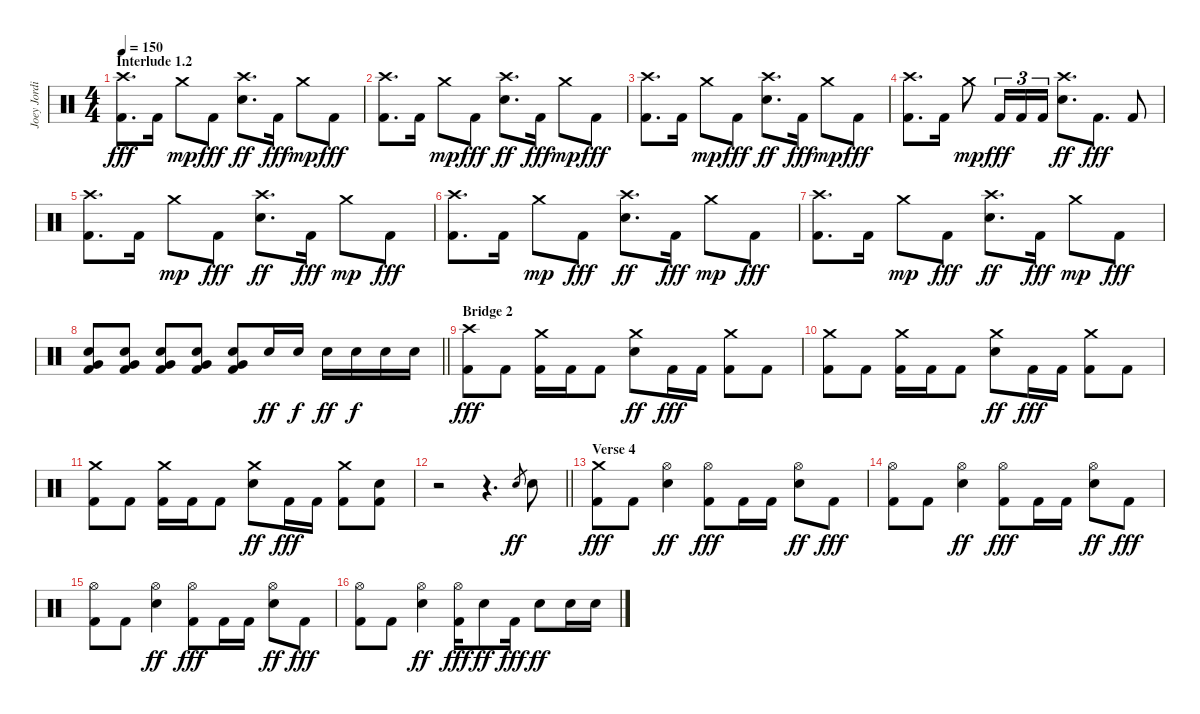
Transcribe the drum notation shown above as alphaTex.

\track ("Joey Jordison" "Joey Jordi") {instrument percussion}
\staff {score}
\articulation defaults
\ts (4 4)
\section ("" "Interlude 1.2")
\tempo 150
\clef neutral
\ks c
("Crash high (hit)" "Kick (hit) 2").8{d dy fff} "Kick (hit) 2".16 "Crash medium (hit)".8{dy mp} "Kick (hit) 2".8{dy fff} ("Crash high (hit)" "Electric Snare (hit)").8{d dy ff} "Kick (hit) 2".16{dy fff} "Crash medium (hit)".8{dy mp} "Kick (hit) 2".8{dy fff} |
("Crash high (hit)" "Kick (hit) 2").8{d} "Kick (hit) 2".16 "Crash medium (hit)".8{dy mp} "Kick (hit) 2".8{dy fff} ("Crash high (hit)" "Electric Snare (hit)").8{d dy ff} "Kick (hit) 2".16{dy fff} "Crash medium (hit)".8{dy mp} "Kick (hit) 2".8{dy fff} |
("Crash high (hit)" "Kick (hit) 2").8{d} "Kick (hit) 2".16 "Crash medium (hit)".8{dy mp} "Kick (hit) 2".8{dy fff} ("Crash high (hit)" "Electric Snare (hit)").8{d dy ff} "Kick (hit) 2".16{dy fff} "Crash medium (hit)".8{dy mp} "Kick (hit) 2".8{dy fff} |
("Crash high (hit)" "Kick (hit) 2").8{d} "Kick (hit) 2".16 "Crash medium (hit)".8{dy mp} "Kick (hit) 2".16{tu (3 2) dy fff} "Kick (hit) 2".16{tu (3 2)} "Kick (hit) 2".16{tu (3 2)} ("Crash high (hit)" "Electric Snare (hit)").8{d dy ff} "Kick (hit) 2".8{d dy fff} "Kick (hit) 2".8 |
("Crash high (hit)" "Kick (hit) 2").8{d} "Kick (hit) 2".16 "Crash medium (hit)".8{dy mp} "Kick (hit) 2".8{dy fff} ("Crash high (hit)" "Electric Snare (hit)").8{d dy ff} "Kick (hit) 2".16{dy fff} "Crash medium (hit)".8{dy mp} "Kick (hit) 2".8{dy fff} |
("Crash high (hit)" "Kick (hit) 2").8{d} "Kick (hit) 2".16 "Crash medium (hit)".8{dy mp} "Kick (hit) 2".8{dy fff} ("Crash high (hit)" "Electric Snare (hit)").8{d dy ff} "Kick (hit) 2".16{dy fff} "Crash medium (hit)".8{dy mp} "Kick (hit) 2".8{dy fff} |
("Crash high (hit)" "Kick (hit) 2").8{d} "Kick (hit) 2".16 "Crash medium (hit)".8{dy mp} "Kick (hit) 2".8{dy fff} ("Crash high (hit)" "Electric Snare (hit)").8{d dy ff} "Kick (hit) 2".16{dy fff} "Crash medium (hit)".8{dy mp} "Kick (hit) 2".8{dy fff} |
\barLineRight lightlight
("Electric Snare (hit)" "Very Low Tom (hit)" "Kick (hit) 2").8 ("Electric Snare (hit)" "Very Low Tom (hit)" "Kick (hit) 2").8 ("Electric Snare (hit)" "Very Low Tom (hit)" "Kick (hit) 2").8 ("Electric Snare (hit)" "Very Low Tom (hit)" "Kick (hit) 2").8 ("Electric Snare (hit)" "Very Low Tom (hit)" "Kick (hit) 2").8 "Electric Snare (hit)".16{dy ff} "Electric Snare (hit)".16{dy f} "Electric Snare (hit)".16{dy ff} "Electric Snare (hit)".16{dy f} "Electric Snare (hit)".16 "Electric Snare (hit)".16 |
\section ("" "Bridge 2")
("Crash high (hit)" "Kick (hit) 2").8{dy fff} "Kick (hit) 2".8 ("Crash medium (hit)" "Kick (hit) 2").16 "Kick (hit) 2".16 "Kick (hit) 2".8 ("Crash medium (hit)" "Electric Snare (hit)").8{dy ff} "Kick (hit) 2".16{dy fff} "Kick (hit) 2".16 ("Crash medium (hit)" "Kick (hit) 2").8 "Kick (hit) 2".8 |
("Crash medium (hit)" "Kick (hit) 2").8 "Kick (hit) 2".8 ("Crash medium (hit)" "Kick (hit) 2").16 "Kick (hit) 2".16 "Kick (hit) 2".8 ("Crash medium (hit)" "Electric Snare (hit)").8{dy ff} "Kick (hit) 2".16{dy fff} "Kick (hit) 2".16 ("Crash medium (hit)" "Kick (hit) 2").8 "Kick (hit) 2".8 |
("Crash medium (hit)" "Kick (hit) 2").8 "Kick (hit) 2".8 ("Crash medium (hit)" "Kick (hit) 2").16 "Kick (hit) 2".16 "Kick (hit) 2".8 ("Crash medium (hit)" "Electric Snare (hit)").8{dy ff} "Kick (hit) 2".16{dy fff} "Kick (hit) 2".16 ("Crash medium (hit)" "Kick (hit) 2").8 ("Electric Snare (hit)" "Kick (hit) 2").8 |
\barLineRight lightlight
r.2 r.4{d} "Electric Snare (hit)".8{gr dy ff} "Electric Snare (hit)".8 |
\section ("" "Verse 4")
("Crash medium (hit)" "Kick (hit) 2").8{dy fff} "Kick (hit) 2".8 ("Hi-Hat (open)" "Electric Snare (hit)").4{dy ff} ("Hi-Hat (open)" "Kick (hit) 2").8{dy fff} "Kick (hit) 2".16 "Kick (hit) 2".16 ("Hi-Hat (open)" "Electric Snare (hit)").8{dy ff} "Kick (hit) 2".8{dy fff} |
("Hi-Hat (open)" "Kick (hit) 2").8 "Kick (hit) 2".8 ("Hi-Hat (open)" "Electric Snare (hit)").4{dy ff} ("Hi-Hat (open)" "Kick (hit) 2").8{dy fff} "Kick (hit) 2".16 "Kick (hit) 2".16 ("Hi-Hat (open)" "Electric Snare (hit)").8{dy ff} "Kick (hit) 2".8{dy fff} |
("Hi-Hat (open)" "Kick (hit) 2").8 "Kick (hit) 2".8 ("Hi-Hat (open)" "Electric Snare (hit)").4{dy ff} ("Hi-Hat (open)" "Kick (hit) 2").8{dy fff} "Kick (hit) 2".16 "Kick (hit) 2".16 ("Hi-Hat (open)" "Electric Snare (hit)").8{dy ff} "Kick (hit) 2".8{dy fff} |
("Hi-Hat (open)" "Kick (hit) 2").8 "Kick (hit) 2".8 ("Hi-Hat (open)" "Electric Snare (hit)").4{dy ff} ("Hi-Hat (open)" "Kick (hit) 2").16{dy fff} "Electric Snare (hit)".8{dy ff} "Kick (hit) 2".16{dy fff} "Electric Snare (hit)".8{dy ff} "Electric Snare (hit)".16 "Electric Snare (hit)".16
